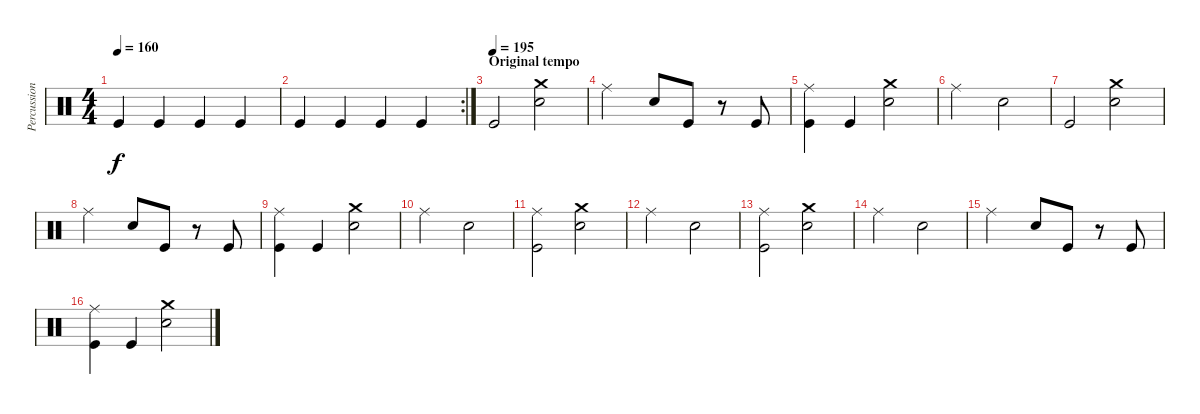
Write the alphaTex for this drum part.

\track ("Percussion" "Percussion") {instrument percussion}
\staff {score}
\articulation defaults
\ts (4 4)
\tempo 160
\clef neutral
\ks c "Kick (hit)".4{dy f} "Kick (hit)".4 "Kick (hit)".4 "Kick (hit)".4
|
\rc 2 "Kick (hit)".4 "Kick (hit)".4 "Kick (hit)".4 "Kick (hit)".4
|
\section ("" "Original tempo")
\tempo (195)
"Kick (hit)".2 ("Crash medium (hit)" "Snare (hit) 2").2 |
"Ride (middle)".2 "Snare (hit) 2".8 "Kick (hit)".8 r.8 "Kick (hit)".8 |
("Ride (middle)" "Kick (hit)").4 "Kick (hit)".4 ("Crash medium (hit)" "Snare (hit) 2").2 |
"Ride (middle)".2 "Snare (hit) 2".2 |
"Kick (hit)".2 ("Crash medium (hit)" "Snare (hit) 2").2 |
"Ride (middle)".2 "Snare (hit) 2".8 "Kick (hit)".8 r.8 "Kick (hit)".8 |
("Ride (middle)" "Kick (hit)").4 "Kick (hit)".4 ("Crash medium (hit)" "Snare (hit) 2").2 |
"Ride (middle)".2 "Snare (hit) 2".2 |
("Ride (middle)" "Kick (hit)").2 ("Crash medium (hit)" "Snare (hit) 2").2 |
"Ride (middle)".2 "Snare (hit) 2".2 |
("Ride (middle)" "Kick (hit)").2 ("Crash medium (hit)" "Snare (hit) 2").2 |
"Ride (middle)".2 "Snare (hit) 2".2 |
"Ride (middle)".2 "Snare (hit) 2".8 "Kick (hit)".8 r.8 "Kick (hit)".8 |
("Ride (middle)" "Kick (hit)").4 "Kick (hit)".4 ("Crash medium (hit)" "Snare (hit) 2").2
